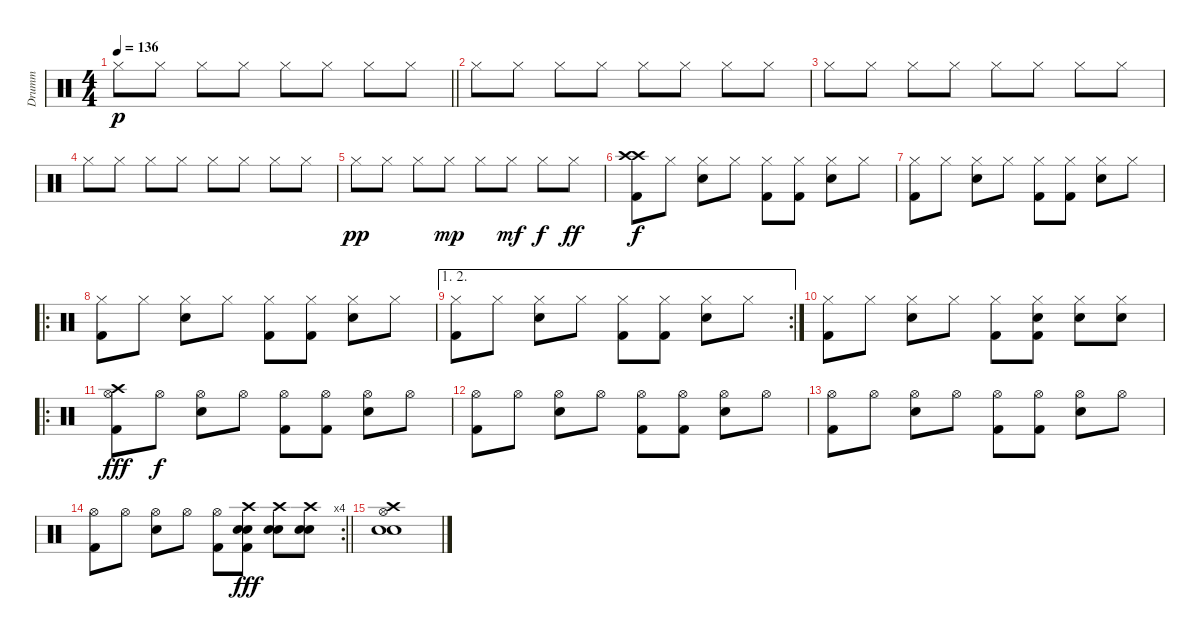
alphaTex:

\track ("Drumm" "Drumm") {instrument percussion}
\staff {score}
\articulation defaults
\ts (4 4)
\tempo 136
\clef neutral
\barLineRight lightlight
\ks c "Hi-Hat (closed)".8{dy p} "Hi-Hat (closed)".8 "Hi-Hat (closed)".8 "Hi-Hat (closed)".8 "Hi-Hat (closed)".8 "Hi-Hat (closed)".8 "Hi-Hat (closed)".8 "Hi-Hat (closed)".8
|
"Hi-Hat (closed)".8 "Hi-Hat (closed)".8 "Hi-Hat (closed)".8 "Hi-Hat (closed)".8 "Hi-Hat (closed)".8 "Hi-Hat (closed)".8 "Hi-Hat (closed)".8 "Hi-Hat (closed)".8 |
"Hi-Hat (closed)".8 "Hi-Hat (closed)".8 "Hi-Hat (closed)".8 "Hi-Hat (closed)".8 "Hi-Hat (closed)".8 "Hi-Hat (closed)".8 "Hi-Hat (closed)".8 "Hi-Hat (closed)".8 |
"Hi-Hat (closed)".8 "Hi-Hat (closed)".8 "Hi-Hat (closed)".8 "Hi-Hat (closed)".8 "Hi-Hat (closed)".8 "Hi-Hat (closed)".8 "Hi-Hat (closed)".8 "Hi-Hat (closed)".8 |
"Hi-Hat (closed)".8{dy pp} "Hi-Hat (closed)".8 "Hi-Hat (closed)".8 "Hi-Hat (closed)".8{dy mp} "Hi-Hat (closed)".8 "Hi-Hat (closed)".8{dy mf} "Hi-Hat (closed)".8{dy f} "Hi-Hat (closed)".8{dy ff} |
("Crash high (hit)" "Crash high (hit)" "Kick (hit) 2").8{dy f} "Hi-Hat (closed)".8 ("Hi-Hat (closed)" "Snare (hit) 2").8 "Hi-Hat (closed)".8 ("Hi-Hat (closed)" "Kick (hit) 2").8 ("Hi-Hat (closed)" "Kick (hit) 2").8 ("Hi-Hat (closed)" "Snare (hit) 2").8 "Hi-Hat (closed)".8 |
("Hi-Hat (closed)" "Kick (hit) 2").8 "Hi-Hat (closed)".8 ("Hi-Hat (closed)" "Snare (hit) 2").8 "Hi-Hat (closed)".8 ("Hi-Hat (closed)" "Kick (hit) 2").8 ("Hi-Hat (closed)" "Kick (hit) 2").8 ("Hi-Hat (closed)" "Snare (hit) 2").8 "Hi-Hat (closed)".8 |
\ro
("Hi-Hat (closed)" "Kick (hit) 2").8 "Hi-Hat (closed)".8 ("Hi-Hat (closed)" "Snare (hit) 2").8 "Hi-Hat (closed)".8 ("Hi-Hat (closed)" "Kick (hit) 2").8 ("Hi-Hat (closed)" "Kick (hit) 2").8 ("Hi-Hat (closed)" "Snare (hit) 2").8 "Hi-Hat (closed)".8 |
\ae (1 2)
\rc 2
("Hi-Hat (closed)" "Kick (hit) 2").8 "Hi-Hat (closed)".8 ("Hi-Hat (closed)" "Snare (hit) 2").8 "Hi-Hat (closed)".8 ("Hi-Hat (closed)" "Kick (hit) 2").8 ("Hi-Hat (closed)" "Kick (hit) 2").8 ("Hi-Hat (closed)" "Snare (hit) 2").8 "Hi-Hat (closed)".8 |
("Hi-Hat (closed)" "Kick (hit) 2").8 "Hi-Hat (closed)".8 ("Hi-Hat (closed)" "Snare (hit) 2").8 "Hi-Hat (closed)".8 ("Hi-Hat (closed)" "Kick (hit) 2").8 ("Hi-Hat (closed)" "Snare (hit) 2" "Kick (hit) 2").8 ("Hi-Hat (closed)" "Snare (hit) 2").8 ("Hi-Hat (closed)" "Snare (hit) 2").8 |
\ro
("Crash high (hit)" "Hi-Hat (open)" "Kick (hit) 2").8{dy fff} "Hi-Hat (open)".8{dy f} ("Hi-Hat (open)" "Snare (hit) 2").8 "Hi-Hat (open)".8 ("Hi-Hat (open)" "Kick (hit) 2").8 ("Hi-Hat (open)" "Kick (hit) 2").8 ("Hi-Hat (open)" "Snare (hit) 2").8 "Hi-Hat (open)".8 |
("Hi-Hat (open)" "Kick (hit) 2").8 "Hi-Hat (open)".8 ("Hi-Hat (open)" "Snare (hit) 2").8 "Hi-Hat (open)".8 ("Hi-Hat (open)" "Kick (hit) 2").8 ("Hi-Hat (open)" "Kick (hit) 2").8 ("Hi-Hat (open)" "Snare (hit) 2").8 "Hi-Hat (open)".8 |
("Hi-Hat (open)" "Kick (hit) 2").8 "Hi-Hat (open)".8 ("Hi-Hat (open)" "Snare (hit) 2").8 "Hi-Hat (open)".8 ("Hi-Hat (open)" "Kick (hit) 2").8 ("Hi-Hat (open)" "Kick (hit) 2").8 ("Hi-Hat (open)" "Snare (hit) 2").8 "Hi-Hat (open)".8 |
\rc 4
\barLineRight lightlight
("Hi-Hat (open)" "Kick (hit) 2").8 "Hi-Hat (open)".8 ("Hi-Hat (open)" "Snare (hit) 2").8 "Hi-Hat (open)".8 ("Hi-Hat (open)" "Kick (hit) 2").8 ("Crash high (hit)" "Electric Snare (hit)" "Snare (hit) 2" "Kick (hit) 2").8{dy fff} ("Crash high (hit)" "Electric Snare (hit)" "Snare (hit) 2").8 ("Crash high (hit)" "Electric Snare (hit)" "Snare (hit) 2").8 |
("Hi-Hat (open)" "Crash high (hit)" "Snare (hit) 2" "Electric Snare (hit)").1
